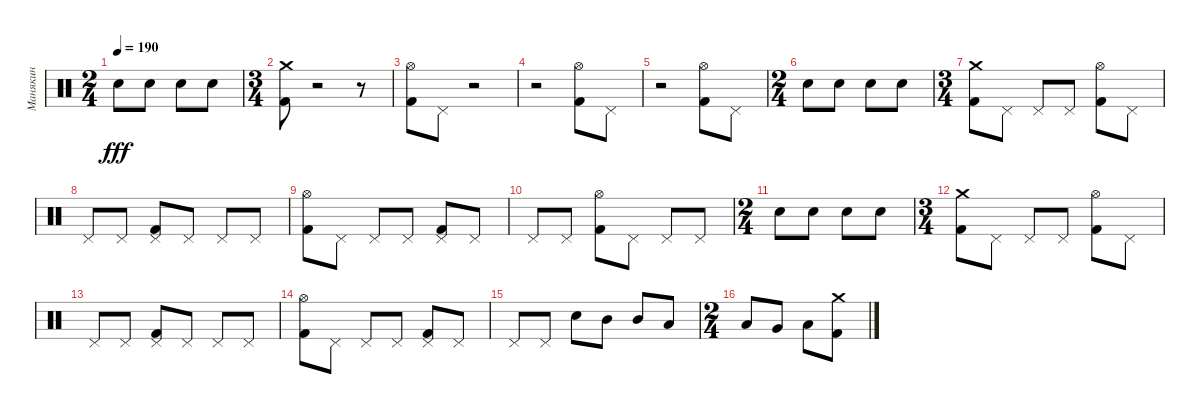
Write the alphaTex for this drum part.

\track ("Манякин" "Манякин") {instrument percussion}
\staff {score}
\articulation defaults
\ts (2 4)
\tempo 190
\clef neutral
\ks c "Snare (hit) 2".8{dy fff} "Snare (hit) 2".8 "Snare (hit) 2".8 "Snare (hit) 2".8
|
\ts (3 4)
("Kick (hit) 2" "Crash medium (hit)").8 r.2 r.8 |
("Kick (hit) 2" "Hi-Hat (open)").8 "Pedal Hi-Hat (hit)".8 r.2 |
r.2 ("Hi-Hat (open)" "Kick (hit) 2").8 "Pedal Hi-Hat (hit)".8 |
r.2 ("Kick (hit) 2" "Hi-Hat (open)").8 "Pedal Hi-Hat (hit)".8 |
\ts (2 4)
"Snare (hit) 2".8 "Snare (hit) 2".8 "Snare (hit) 2".8 "Snare (hit) 2".8 |
\ts (3 4)
("Crash medium (hit)" "Kick (hit) 2").8 "Pedal Hi-Hat (hit)".8 "Pedal Hi-Hat (hit)".8 "Pedal Hi-Hat (hit)".8 ("Hi-Hat (open)" "Kick (hit) 2").8 "Pedal Hi-Hat (hit)".8 |
"Pedal Hi-Hat (hit)".8 "Pedal Hi-Hat (hit)".8 ("Pedal Hi-Hat (hit)" "Kick (hit) 2").8 "Pedal Hi-Hat (hit)".8 "Pedal Hi-Hat (hit)".8 "Pedal Hi-Hat (hit)".8 |
("Hi-Hat (open)" "Kick (hit) 2").8 "Pedal Hi-Hat (hit)".8 "Pedal Hi-Hat (hit)".8 "Pedal Hi-Hat (hit)".8 ("Pedal Hi-Hat (hit)" "Kick (hit) 2").8 "Pedal Hi-Hat (hit)".8 |
"Pedal Hi-Hat (hit)".8 "Pedal Hi-Hat (hit)".8 ("Hi-Hat (open)" "Kick (hit) 2").8 "Pedal Hi-Hat (hit)".8 "Pedal Hi-Hat (hit)".8 "Pedal Hi-Hat (hit)".8 |
\ts (2 4)
"Snare (hit) 2".8 "Snare (hit) 2".8 "Snare (hit) 2".8 "Snare (hit) 2".8 |
\ts (3 4)
("Crash medium (hit)" "Kick (hit) 2").8 "Pedal Hi-Hat (hit)".8 "Pedal Hi-Hat (hit)".8 "Pedal Hi-Hat (hit)".8 ("Hi-Hat (open)" "Kick (hit) 2").8 "Pedal Hi-Hat (hit)".8 |
"Pedal Hi-Hat (hit)".8 "Pedal Hi-Hat (hit)".8 ("Pedal Hi-Hat (hit)" "Kick (hit) 2").8 "Pedal Hi-Hat (hit)".8 "Pedal Hi-Hat (hit)".8 "Pedal Hi-Hat (hit)".8 |
("Hi-Hat (open)" "Kick (hit) 2").8 "Pedal Hi-Hat (hit)".8 "Pedal Hi-Hat (hit)".8 "Pedal Hi-Hat (hit)".8 ("Pedal Hi-Hat (hit)" "Kick (hit) 2").8 "Pedal Hi-Hat (hit)".8 |
"Pedal Hi-Hat (hit)".8 "Pedal Hi-Hat (hit)".8 "Snare (hit) 2".8 "Mid Tom (hit)".8 "Mid Tom (hit)".8 "Low Tom (hit)".8 |
\ts (2 4)
"Low Tom (hit)".8 "Very Low Tom (hit)".8 "Low Floor Tom (hit)".8 ("Crash medium (hit)" "Kick (hit) 2").8
